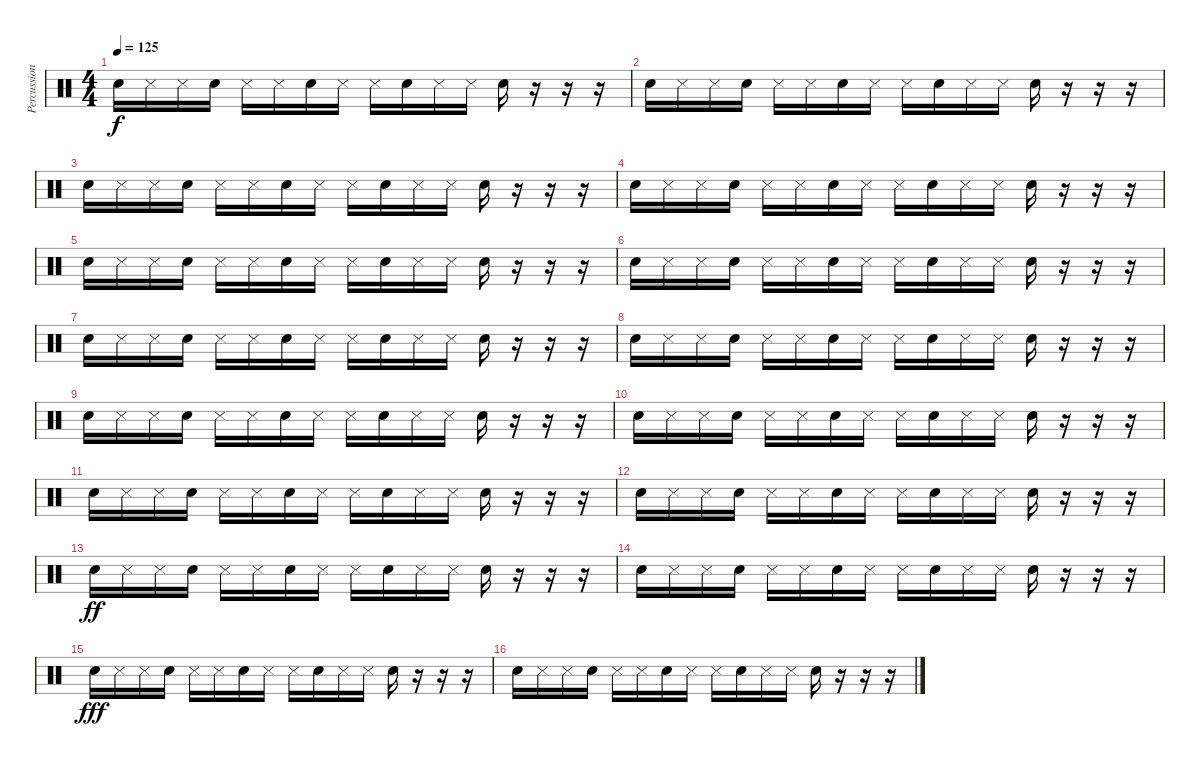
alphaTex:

\track ("Percussion" "Percussion") {instrument percussion}
\staff {score}
\articulation defaults
\ts (4 4)
\tempo 125
\clef neutral
\ks c "Snare (hit) 2".16{dy f} "Snare (side stick) 3".16 "Snare (side stick) 3".16 "Snare (hit) 2".16 "Snare (side stick) 3".16 "Snare (side stick) 3".16 "Snare (hit) 2".16 "Snare (side stick) 3".16 "Snare (side stick) 3".16 "Snare (hit) 2".16 "Snare (side stick) 3".16 "Snare (side stick) 3".16 "Snare (hit) 2".16
r.16 r.16 r.16 |
"Snare (hit) 2".16 "Snare (side stick) 3".16 "Snare (side stick) 3".16 "Snare (hit) 2".16 "Snare (side stick) 3".16 "Snare (side stick) 3".16 "Snare (hit) 2".16 "Snare (side stick) 3".16 "Snare (side stick) 3".16 "Snare (hit) 2".16 "Snare (side stick) 3".16 "Snare (side stick) 3".16 "Snare (hit) 2".16 r.16 r.16 r.16 |
"Snare (hit) 2".16 "Snare (side stick) 3".16 "Snare (side stick) 3".16 "Snare (hit) 2".16 "Snare (side stick) 3".16 "Snare (side stick) 3".16 "Snare (hit) 2".16 "Snare (side stick) 3".16 "Snare (side stick) 3".16 "Snare (hit) 2".16 "Snare (side stick) 3".16 "Snare (side stick) 3".16 "Snare (hit) 2".16 r.16 r.16 r.16 |
"Snare (hit) 2".16 "Snare (side stick) 3".16 "Snare (side stick) 3".16 "Snare (hit) 2".16 "Snare (side stick) 3".16 "Snare (side stick) 3".16 "Snare (hit) 2".16 "Snare (side stick) 3".16 "Snare (side stick) 3".16 "Snare (hit) 2".16 "Snare (side stick) 3".16 "Snare (side stick) 3".16 "Snare (hit) 2".16 r.16 r.16 r.16 |
"Snare (hit) 2".16 "Snare (side stick) 3".16 "Snare (side stick) 3".16 "Snare (hit) 2".16 "Snare (side stick) 3".16 "Snare (side stick) 3".16 "Snare (hit) 2".16 "Snare (side stick) 3".16 "Snare (side stick) 3".16 "Snare (hit) 2".16 "Snare (side stick) 3".16 "Snare (side stick) 3".16 "Snare (hit) 2".16 r.16 r.16 r.16 |
"Snare (hit) 2".16 "Snare (side stick) 3".16 "Snare (side stick) 3".16 "Snare (hit) 2".16 "Snare (side stick) 3".16 "Snare (side stick) 3".16 "Snare (hit) 2".16 "Snare (side stick) 3".16 "Snare (side stick) 3".16 "Snare (hit) 2".16 "Snare (side stick) 3".16 "Snare (side stick) 3".16 "Snare (hit) 2".16 r.16 r.16 r.16 |
"Snare (hit) 2".16 "Snare (side stick) 3".16 "Snare (side stick) 3".16 "Snare (hit) 2".16 "Snare (side stick) 3".16 "Snare (side stick) 3".16 "Snare (hit) 2".16 "Snare (side stick) 3".16 "Snare (side stick) 3".16 "Snare (hit) 2".16 "Snare (side stick) 3".16 "Snare (side stick) 3".16 "Snare (hit) 2".16 r.16 r.16 r.16 |
"Snare (hit) 2".16 "Snare (side stick) 3".16 "Snare (side stick) 3".16 "Snare (hit) 2".16 "Snare (side stick) 3".16 "Snare (side stick) 3".16 "Snare (hit) 2".16 "Snare (side stick) 3".16 "Snare (side stick) 3".16 "Snare (hit) 2".16 "Snare (side stick) 3".16 "Snare (side stick) 3".16 "Snare (hit) 2".16 r.16 r.16 r.16 |
"Snare (hit) 2".16 "Snare (side stick) 3".16 "Snare (side stick) 3".16 "Snare (hit) 2".16 "Snare (side stick) 3".16 "Snare (side stick) 3".16 "Snare (hit) 2".16 "Snare (side stick) 3".16 "Snare (side stick) 3".16 "Snare (hit) 2".16 "Snare (side stick) 3".16 "Snare (side stick) 3".16 "Snare (hit) 2".16 r.16 r.16 r.16 |
"Snare (hit) 2".16 "Snare (side stick) 3".16 "Snare (side stick) 3".16 "Snare (hit) 2".16 "Snare (side stick) 3".16 "Snare (side stick) 3".16 "Snare (hit) 2".16 "Snare (side stick) 3".16 "Snare (side stick) 3".16 "Snare (hit) 2".16 "Snare (side stick) 3".16 "Snare (side stick) 3".16 "Snare (hit) 2".16 r.16 r.16 r.16 |
"Snare (hit) 2".16 "Snare (side stick) 3".16 "Snare (side stick) 3".16 "Snare (hit) 2".16 "Snare (side stick) 3".16 "Snare (side stick) 3".16 "Snare (hit) 2".16 "Snare (side stick) 3".16 "Snare (side stick) 3".16 "Snare (hit) 2".16 "Snare (side stick) 3".16 "Snare (side stick) 3".16 "Snare (hit) 2".16 r.16 r.16 r.16 |
"Snare (hit) 2".16 "Snare (side stick) 3".16 "Snare (side stick) 3".16 "Snare (hit) 2".16 "Snare (side stick) 3".16 "Snare (side stick) 3".16 "Snare (hit) 2".16 "Snare (side stick) 3".16 "Snare (side stick) 3".16 "Snare (hit) 2".16 "Snare (side stick) 3".16 "Snare (side stick) 3".16 "Snare (hit) 2".16 r.16 r.16 r.16 |
"Snare (hit) 2".16{dy ff} "Snare (side stick) 3".16 "Snare (side stick) 3".16 "Snare (hit) 2".16 "Snare (side stick) 3".16 "Snare (side stick) 3".16 "Snare (hit) 2".16 "Snare (side stick) 3".16 "Snare (side stick) 3".16 "Snare (hit) 2".16 "Snare (side stick) 3".16 "Snare (side stick) 3".16 "Snare (hit) 2".16 r.16 r.16 r.16 |
"Snare (hit) 2".16 "Snare (side stick) 3".16 "Snare (side stick) 3".16 "Snare (hit) 2".16 "Snare (side stick) 3".16 "Snare (side stick) 3".16 "Snare (hit) 2".16 "Snare (side stick) 3".16 "Snare (side stick) 3".16 "Snare (hit) 2".16 "Snare (side stick) 3".16 "Snare (side stick) 3".16 "Snare (hit) 2".16 r.16 r.16 r.16 |
"Snare (hit) 2".16{dy fff} "Snare (side stick) 3".16 "Snare (side stick) 3".16 "Snare (hit) 2".16 "Snare (side stick) 3".16 "Snare (side stick) 3".16 "Snare (hit) 2".16 "Snare (side stick) 3".16 "Snare (side stick) 3".16 "Snare (hit) 2".16 "Snare (side stick) 3".16 "Snare (side stick) 3".16 "Snare (hit) 2".16 r.16 r.16 r.16 |
"Snare (hit) 2".16 "Snare (side stick) 3".16 "Snare (side stick) 3".16 "Snare (hit) 2".16 "Snare (side stick) 3".16 "Snare (side stick) 3".16 "Snare (hit) 2".16 "Snare (side stick) 3".16 "Snare (side stick) 3".16 "Snare (hit) 2".16 "Snare (side stick) 3".16 "Snare (side stick) 3".16 "Snare (hit) 2".16 r.16 r.16 r.16
